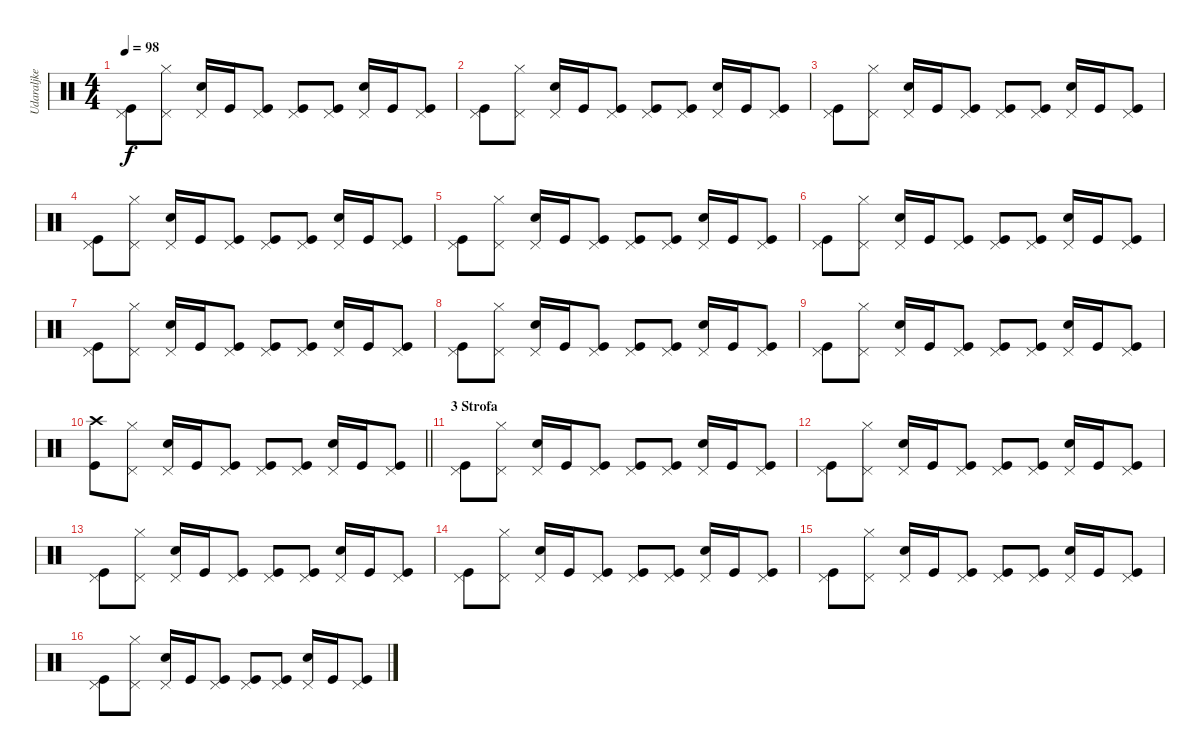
\track ("Udaraljke" "Udaraljke") {instrument percussion}
\staff {score}
\articulation defaults
\ts (4 4)
\tempo 98
\clef neutral
\ks c
("Pedal Hi-Hat (hit)" "Kick (hit)").8{dy f} ("Pedal Hi-Hat (hit)" "Hi-Hat (closed)").8 ("Pedal Hi-Hat (hit)" "Electric Snare (hit)").16 "Kick (hit)".16 ("Pedal Hi-Hat (hit)" "Kick (hit)").8 ("Pedal Hi-Hat (hit)" "Kick (hit)").8 ("Pedal Hi-Hat (hit)" "Kick (hit)").8 ("Pedal Hi-Hat (hit)" "Electric Snare (hit)").16 "Kick (hit)".16 ("Pedal Hi-Hat (hit)" "Kick (hit)").8 |
("Pedal Hi-Hat (hit)" "Kick (hit)").8 ("Pedal Hi-Hat (hit)" "Hi-Hat (closed)").8 ("Pedal Hi-Hat (hit)" "Electric Snare (hit)").16 "Kick (hit)".16 ("Pedal Hi-Hat (hit)" "Kick (hit)").8 ("Pedal Hi-Hat (hit)" "Kick (hit)").8 ("Pedal Hi-Hat (hit)" "Kick (hit)").8 ("Pedal Hi-Hat (hit)" "Electric Snare (hit)").16 "Kick (hit)".16 ("Pedal Hi-Hat (hit)" "Kick (hit)").8 |
("Pedal Hi-Hat (hit)" "Kick (hit)").8 ("Pedal Hi-Hat (hit)" "Hi-Hat (closed)").8 ("Pedal Hi-Hat (hit)" "Electric Snare (hit)").16 "Kick (hit)".16 ("Pedal Hi-Hat (hit)" "Kick (hit)").8 ("Pedal Hi-Hat (hit)" "Kick (hit)").8 ("Pedal Hi-Hat (hit)" "Kick (hit)").8 ("Pedal Hi-Hat (hit)" "Electric Snare (hit)").16 "Kick (hit)".16 ("Pedal Hi-Hat (hit)" "Kick (hit)").8 |
("Pedal Hi-Hat (hit)" "Kick (hit)").8 ("Pedal Hi-Hat (hit)" "Hi-Hat (closed)").8 ("Pedal Hi-Hat (hit)" "Electric Snare (hit)").16 "Kick (hit)".16 ("Pedal Hi-Hat (hit)" "Kick (hit)").8 ("Pedal Hi-Hat (hit)" "Kick (hit)").8 ("Pedal Hi-Hat (hit)" "Kick (hit)").8 ("Pedal Hi-Hat (hit)" "Electric Snare (hit)").16 "Kick (hit)".16 ("Pedal Hi-Hat (hit)" "Kick (hit)").8 |
("Pedal Hi-Hat (hit)" "Kick (hit)").8 ("Pedal Hi-Hat (hit)" "Hi-Hat (closed)").8 ("Pedal Hi-Hat (hit)" "Electric Snare (hit)").16 "Kick (hit)".16 ("Pedal Hi-Hat (hit)" "Kick (hit)").8 ("Pedal Hi-Hat (hit)" "Kick (hit)").8 ("Pedal Hi-Hat (hit)" "Kick (hit)").8 ("Pedal Hi-Hat (hit)" "Electric Snare (hit)").16 "Kick (hit)".16 ("Pedal Hi-Hat (hit)" "Kick (hit)").8 |
("Pedal Hi-Hat (hit)" "Kick (hit)").8 ("Pedal Hi-Hat (hit)" "Hi-Hat (closed)").8 ("Pedal Hi-Hat (hit)" "Electric Snare (hit)").16 "Kick (hit)".16 ("Pedal Hi-Hat (hit)" "Kick (hit)").8 ("Pedal Hi-Hat (hit)" "Kick (hit)").8 ("Pedal Hi-Hat (hit)" "Kick (hit)").8 ("Pedal Hi-Hat (hit)" "Electric Snare (hit)").16 "Kick (hit)".16 ("Pedal Hi-Hat (hit)" "Kick (hit)").8 |
("Pedal Hi-Hat (hit)" "Kick (hit)").8 ("Pedal Hi-Hat (hit)" "Hi-Hat (closed)").8 ("Pedal Hi-Hat (hit)" "Electric Snare (hit)").16 "Kick (hit)".16 ("Pedal Hi-Hat (hit)" "Kick (hit)").8 ("Pedal Hi-Hat (hit)" "Kick (hit)").8 ("Pedal Hi-Hat (hit)" "Kick (hit)").8 ("Pedal Hi-Hat (hit)" "Electric Snare (hit)").16 "Kick (hit)".16 ("Pedal Hi-Hat (hit)" "Kick (hit)").8 |
("Pedal Hi-Hat (hit)" "Kick (hit)").8 ("Pedal Hi-Hat (hit)" "Hi-Hat (closed)").8 ("Pedal Hi-Hat (hit)" "Electric Snare (hit)").16 "Kick (hit)".16 ("Pedal Hi-Hat (hit)" "Kick (hit)").8 ("Pedal Hi-Hat (hit)" "Kick (hit)").8 ("Pedal Hi-Hat (hit)" "Kick (hit)").8 ("Pedal Hi-Hat (hit)" "Electric Snare (hit)").16 "Kick (hit)".16 ("Pedal Hi-Hat (hit)" "Kick (hit)").8 |
("Pedal Hi-Hat (hit)" "Kick (hit)").8 ("Pedal Hi-Hat (hit)" "Hi-Hat (closed)").8 ("Pedal Hi-Hat (hit)" "Electric Snare (hit)").16 "Kick (hit)".16 ("Pedal Hi-Hat (hit)" "Kick (hit)").8 ("Pedal Hi-Hat (hit)" "Kick (hit)").8 ("Pedal Hi-Hat (hit)" "Kick (hit)").8 ("Pedal Hi-Hat (hit)" "Electric Snare (hit)").16 "Kick (hit)".16 ("Pedal Hi-Hat (hit)" "Kick (hit)").8 |
\barLineRight lightlight
("Crash high (hit)" "Kick (hit)").8 ("Pedal Hi-Hat (hit)" "Hi-Hat (closed)").8 ("Pedal Hi-Hat (hit)" "Electric Snare (hit)").16 "Kick (hit)".16 ("Pedal Hi-Hat (hit)" "Kick (hit)").8 ("Pedal Hi-Hat (hit)" "Kick (hit)").8 ("Pedal Hi-Hat (hit)" "Kick (hit)").8 ("Pedal Hi-Hat (hit)" "Electric Snare (hit)").16 "Kick (hit)".16 ("Pedal Hi-Hat (hit)" "Kick (hit)").8 |
\section ("" "3 Strofa")
("Pedal Hi-Hat (hit)" "Kick (hit)").8 ("Pedal Hi-Hat (hit)" "Hi-Hat (closed)").8 ("Pedal Hi-Hat (hit)" "Electric Snare (hit)").16 "Kick (hit)".16 ("Pedal Hi-Hat (hit)" "Kick (hit)").8 ("Pedal Hi-Hat (hit)" "Kick (hit)").8 ("Pedal Hi-Hat (hit)" "Kick (hit)").8 ("Pedal Hi-Hat (hit)" "Electric Snare (hit)").16 "Kick (hit)".16 ("Pedal Hi-Hat (hit)" "Kick (hit)").8 |
("Pedal Hi-Hat (hit)" "Kick (hit)").8 ("Pedal Hi-Hat (hit)" "Hi-Hat (closed)").8 ("Pedal Hi-Hat (hit)" "Electric Snare (hit)").16 "Kick (hit)".16 ("Pedal Hi-Hat (hit)" "Kick (hit)").8 ("Pedal Hi-Hat (hit)" "Kick (hit)").8 ("Pedal Hi-Hat (hit)" "Kick (hit)").8 ("Pedal Hi-Hat (hit)" "Electric Snare (hit)").16 "Kick (hit)".16 ("Pedal Hi-Hat (hit)" "Kick (hit)").8 |
("Pedal Hi-Hat (hit)" "Kick (hit)").8 ("Pedal Hi-Hat (hit)" "Hi-Hat (closed)").8 ("Pedal Hi-Hat (hit)" "Electric Snare (hit)").16 "Kick (hit)".16 ("Pedal Hi-Hat (hit)" "Kick (hit)").8 ("Pedal Hi-Hat (hit)" "Kick (hit)").8 ("Pedal Hi-Hat (hit)" "Kick (hit)").8 ("Pedal Hi-Hat (hit)" "Electric Snare (hit)").16 "Kick (hit)".16 ("Pedal Hi-Hat (hit)" "Kick (hit)").8 |
("Pedal Hi-Hat (hit)" "Kick (hit)").8 ("Pedal Hi-Hat (hit)" "Hi-Hat (closed)").8 ("Pedal Hi-Hat (hit)" "Electric Snare (hit)").16 "Kick (hit)".16 ("Pedal Hi-Hat (hit)" "Kick (hit)").8 ("Pedal Hi-Hat (hit)" "Kick (hit)").8 ("Pedal Hi-Hat (hit)" "Kick (hit)").8 ("Pedal Hi-Hat (hit)" "Electric Snare (hit)").16 "Kick (hit)".16 ("Pedal Hi-Hat (hit)" "Kick (hit)").8 |
("Pedal Hi-Hat (hit)" "Kick (hit)").8 ("Pedal Hi-Hat (hit)" "Hi-Hat (closed)").8 ("Pedal Hi-Hat (hit)" "Electric Snare (hit)").16 "Kick (hit)".16 ("Pedal Hi-Hat (hit)" "Kick (hit)").8 ("Pedal Hi-Hat (hit)" "Kick (hit)").8 ("Pedal Hi-Hat (hit)" "Kick (hit)").8 ("Pedal Hi-Hat (hit)" "Electric Snare (hit)").16 "Kick (hit)".16 ("Pedal Hi-Hat (hit)" "Kick (hit)").8 |
("Pedal Hi-Hat (hit)" "Kick (hit)").8 ("Pedal Hi-Hat (hit)" "Hi-Hat (closed)").8 ("Pedal Hi-Hat (hit)" "Electric Snare (hit)").16 "Kick (hit)".16 ("Pedal Hi-Hat (hit)" "Kick (hit)").8 ("Pedal Hi-Hat (hit)" "Kick (hit)").8 ("Pedal Hi-Hat (hit)" "Kick (hit)").8 ("Pedal Hi-Hat (hit)" "Electric Snare (hit)").16 "Kick (hit)".16 ("Pedal Hi-Hat (hit)" "Kick (hit)").8
